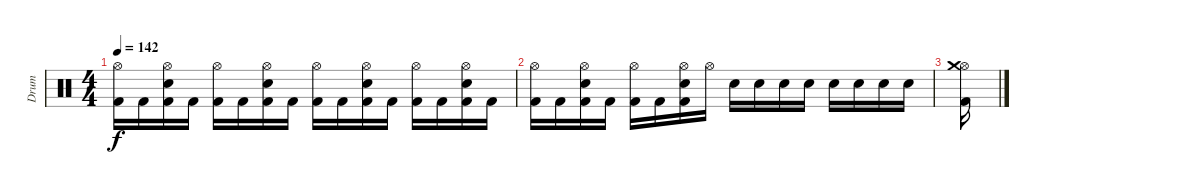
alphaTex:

\track ("Drum" "Drum") {instrument percussion}
\staff {score}
\articulation defaults
\ts (4 4)
\tempo 142
\clef neutral
\ks c
("Hi-Hat (open)" "Kick (hit) 2").16{dy f} "Kick (hit) 2".16 ("Electric Snare (hit)" "Hi-Hat (open)" "Kick (hit) 2").16 "Kick (hit) 2".16 ("Hi-Hat (open)" "Kick (hit) 2").16 "Kick (hit) 2".16 ("Electric Snare (hit)" "Hi-Hat (open)" "Kick (hit) 2").16 "Kick (hit) 2".16 ("Hi-Hat (open)" "Kick (hit) 2").16 "Kick (hit) 2".16 ("Electric Snare (hit)" "Hi-Hat (open)" "Kick (hit) 2").16 "Kick (hit) 2".16 ("Hi-Hat (open)" "Kick (hit) 2").16 "Kick (hit) 2".16 ("Electric Snare (hit)" "Hi-Hat (open)" "Kick (hit) 2").16 "Kick (hit) 2".16 |
("Hi-Hat (open)" "Kick (hit) 2").16 "Kick (hit) 2".16 ("Electric Snare (hit)" "Hi-Hat (open)" "Kick (hit) 2").16 "Kick (hit) 2".16 ("Hi-Hat (open)" "Kick (hit) 2").16 "Kick (hit) 2".16 ("Electric Snare (hit)" "Kick (hit) 2" "Hi-Hat (open)").16 "Hi-Hat (open)".16 "Electric Snare (hit)".16 "Electric Snare (hit)".16 "Electric Snare (hit)".16 "Electric Snare (hit)".16 "Electric Snare (hit)".16 "Electric Snare (hit)".16 "Electric Snare (hit)".16 "Electric Snare (hit)".16 |
("Hi-Hat (open)" "Kick (hit) 2" "Crash medium (hit)").16
